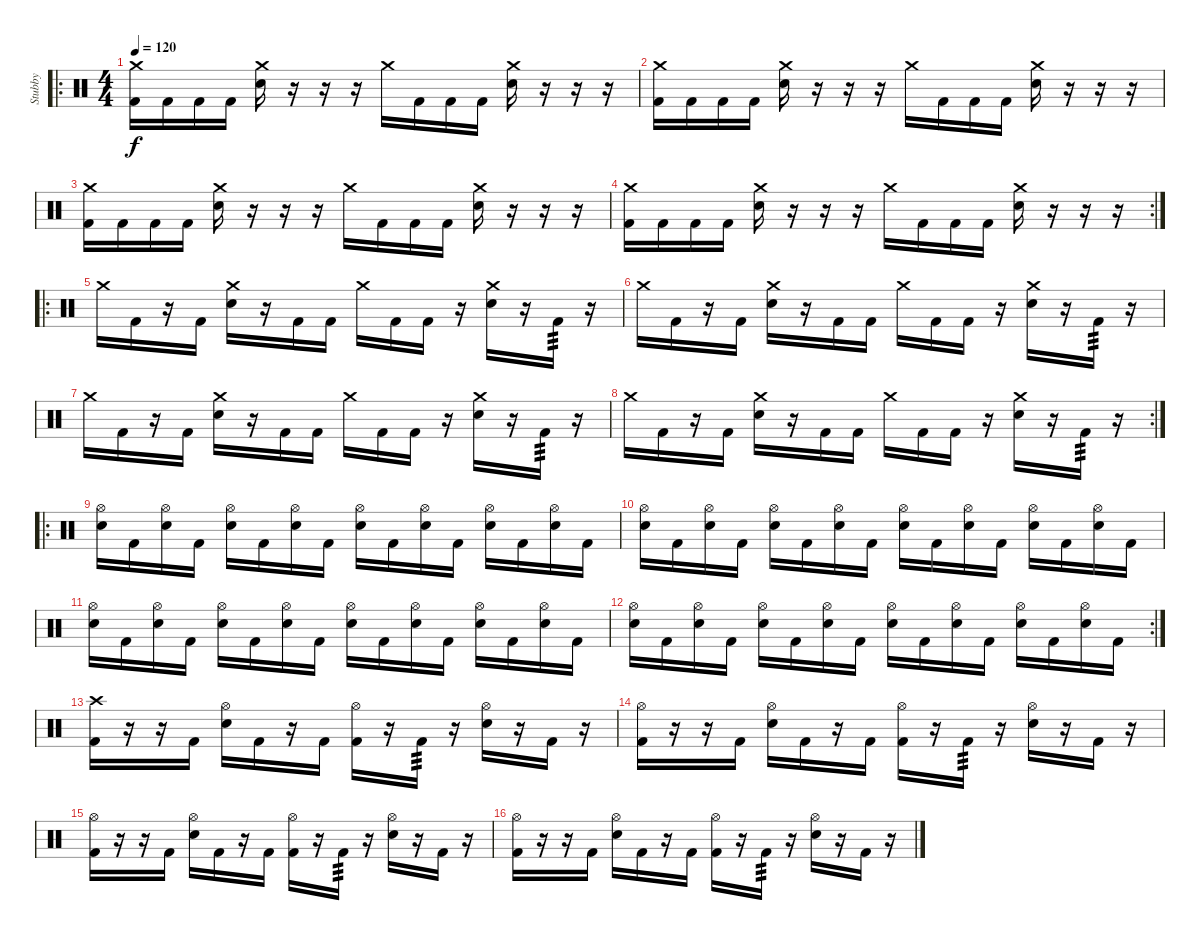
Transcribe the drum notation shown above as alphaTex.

\track ("Stubby" "Stubby") {instrument percussion}
\staff {score}
\articulation defaults
\ro
\ts (4 4)
\tempo 120
\clef neutral
\ks c
("Crash medium (hit)" "Kick (hit) 2").16{dy f} "Kick (hit) 2".16 "Kick (hit) 2".16 "Kick (hit) 2".16 ("Crash medium (hit)" "Electric Snare (hit)").16 r.16 r.16 r.16 "Crash medium (hit)".16 "Kick (hit) 2".16 "Kick (hit) 2".16 "Kick (hit) 2".16 ("Crash medium (hit)" "Electric Snare (hit)").16 r.16 r.16 r.16 |
("Crash medium (hit)" "Kick (hit) 2").16 "Kick (hit) 2".16 "Kick (hit) 2".16 "Kick (hit) 2".16 ("Crash medium (hit)" "Electric Snare (hit)").16 r.16 r.16 r.16 "Crash medium (hit)".16 "Kick (hit) 2".16 "Kick (hit) 2".16 "Kick (hit) 2".16 ("Crash medium (hit)" "Electric Snare (hit)").16 r.16 r.16 r.16 |
("Crash medium (hit)" "Kick (hit) 2").16 "Kick (hit) 2".16 "Kick (hit) 2".16 "Kick (hit) 2".16 ("Crash medium (hit)" "Electric Snare (hit)").16 r.16 r.16 r.16 "Crash medium (hit)".16 "Kick (hit) 2".16 "Kick (hit) 2".16 "Kick (hit) 2".16 ("Crash medium (hit)" "Electric Snare (hit)").16 r.16 r.16 r.16 |
\rc 2
("Crash medium (hit)" "Kick (hit) 2").16 "Kick (hit) 2".16 "Kick (hit) 2".16 "Kick (hit) 2".16 ("Crash medium (hit)" "Electric Snare (hit)").16 r.16 r.16 r.16 "Crash medium (hit)".16 "Kick (hit) 2".16 "Kick (hit) 2".16 "Kick (hit) 2".16 ("Crash medium (hit)" "Electric Snare (hit)").16 r.16 r.16 r.16 |
\ro "Crash medium (hit)".16 "Kick (hit) 2".16
r.16 "Kick (hit) 2".16 ("Crash medium (hit)" "Electric Snare (hit)").16 r.16 "Kick (hit) 2".16 "Kick (hit) 2".16 "Crash medium (hit)".16 "Kick (hit) 2".16 "Kick (hit) 2".16 r.16 ("Crash medium (hit)" "Electric Snare (hit)").16 r.16 "Kick (hit) 2".16{tp 3} r.16 |
"Crash medium (hit)".16 "Kick (hit) 2".16 r.16 "Kick (hit) 2".16 ("Crash medium (hit)" "Electric Snare (hit)").16 r.16 "Kick (hit) 2".16 "Kick (hit) 2".16 "Crash medium (hit)".16 "Kick (hit) 2".16 "Kick (hit) 2".16 r.16 ("Crash medium (hit)" "Electric Snare (hit)").16 r.16 "Kick (hit) 2".16{tp 3} r.16 |
"Crash medium (hit)".16 "Kick (hit) 2".16 r.16 "Kick (hit) 2".16 ("Crash medium (hit)" "Electric Snare (hit)").16 r.16 "Kick (hit) 2".16 "Kick (hit) 2".16 "Crash medium (hit)".16 "Kick (hit) 2".16 "Kick (hit) 2".16 r.16 ("Crash medium (hit)" "Electric Snare (hit)").16 r.16 "Kick (hit) 2".16{tp 3} r.16 |
\rc 2 "Crash medium (hit)".16 "Kick (hit) 2".16
r.16 "Kick (hit) 2".16 ("Crash medium (hit)" "Electric Snare (hit)").16 r.16 "Kick (hit) 2".16 "Kick (hit) 2".16 "Crash medium (hit)".16 "Kick (hit) 2".16 "Kick (hit) 2".16 r.16 ("Crash medium (hit)" "Electric Snare (hit)").16 r.16 "Kick (hit) 2".16{tp 3} r.16 |
\ro
("Hi-Hat (open)" "Electric Snare (hit)").16 "Kick (hit) 2".16 ("Hi-Hat (open)" "Electric Snare (hit)").16 "Kick (hit) 2".16 ("Hi-Hat (open)" "Electric Snare (hit)").16 "Kick (hit) 2".16 ("Hi-Hat (open)" "Electric Snare (hit)").16 "Kick (hit) 2".16 ("Hi-Hat (open)" "Electric Snare (hit)").16 "Kick (hit) 2".16 ("Hi-Hat (open)" "Electric Snare (hit)").16 "Kick (hit) 2".16 ("Hi-Hat (open)" "Electric Snare (hit)").16 "Kick (hit) 2".16 ("Hi-Hat (open)" "Electric Snare (hit)").16 "Kick (hit) 2".16 |
("Hi-Hat (open)" "Electric Snare (hit)").16 "Kick (hit) 2".16 ("Hi-Hat (open)" "Electric Snare (hit)").16 "Kick (hit) 2".16 ("Hi-Hat (open)" "Electric Snare (hit)").16 "Kick (hit) 2".16 ("Hi-Hat (open)" "Electric Snare (hit)").16 "Kick (hit) 2".16 ("Hi-Hat (open)" "Electric Snare (hit)").16 "Kick (hit) 2".16 ("Hi-Hat (open)" "Electric Snare (hit)").16 "Kick (hit) 2".16 ("Hi-Hat (open)" "Electric Snare (hit)").16 "Kick (hit) 2".16 ("Hi-Hat (open)" "Electric Snare (hit)").16 "Kick (hit) 2".16 |
("Hi-Hat (open)" "Electric Snare (hit)").16 "Kick (hit) 2".16 ("Hi-Hat (open)" "Electric Snare (hit)").16 "Kick (hit) 2".16 ("Hi-Hat (open)" "Electric Snare (hit)").16 "Kick (hit) 2".16 ("Hi-Hat (open)" "Electric Snare (hit)").16 "Kick (hit) 2".16 ("Hi-Hat (open)" "Electric Snare (hit)").16 "Kick (hit) 2".16 ("Hi-Hat (open)" "Electric Snare (hit)").16 "Kick (hit) 2".16 ("Hi-Hat (open)" "Electric Snare (hit)").16 "Kick (hit) 2".16 ("Hi-Hat (open)" "Electric Snare (hit)").16 "Kick (hit) 2".16 |
\rc 2
("Hi-Hat (open)" "Electric Snare (hit)").16 "Kick (hit) 2".16 ("Hi-Hat (open)" "Electric Snare (hit)").16 "Kick (hit) 2".16 ("Hi-Hat (open)" "Electric Snare (hit)").16 "Kick (hit) 2".16 ("Hi-Hat (open)" "Electric Snare (hit)").16 "Kick (hit) 2".16 ("Hi-Hat (open)" "Electric Snare (hit)").16 "Kick (hit) 2".16 ("Hi-Hat (open)" "Electric Snare (hit)").16 "Kick (hit) 2".16 ("Hi-Hat (open)" "Electric Snare (hit)").16 "Kick (hit) 2".16 ("Hi-Hat (open)" "Electric Snare (hit)").16 "Kick (hit) 2".16 |
("Crash high (hit)" "Kick (hit) 2").16 r.16 r.16 "Kick (hit) 2".16 ("Hi-Hat (open)" "Electric Snare (hit)").16 "Kick (hit) 2".16 r.16 "Kick (hit) 2".16 ("Hi-Hat (open)" "Kick (hit) 2").16 r.16 "Kick (hit) 2".16{tp 3} r.16 ("Hi-Hat (open)" "Electric Snare (hit)").16 r.16 "Kick (hit) 2".16 r.16 |
("Hi-Hat (open)" "Kick (hit) 2").16 r.16 r.16 "Kick (hit) 2".16 ("Hi-Hat (open)" "Electric Snare (hit)").16 "Kick (hit) 2".16 r.16 "Kick (hit) 2".16 ("Hi-Hat (open)" "Kick (hit) 2").16 r.16 "Kick (hit) 2".16{tp 3} r.16 ("Hi-Hat (open)" "Electric Snare (hit)").16 r.16 "Kick (hit) 2".16 r.16 |
("Hi-Hat (open)" "Kick (hit) 2").16 r.16 r.16 "Kick (hit) 2".16 ("Hi-Hat (open)" "Electric Snare (hit)").16 "Kick (hit) 2".16 r.16 "Kick (hit) 2".16 ("Hi-Hat (open)" "Kick (hit) 2").16 r.16 "Kick (hit) 2".16{tp 3} r.16 ("Hi-Hat (open)" "Electric Snare (hit)").16 r.16 "Kick (hit) 2".16 r.16 |
("Hi-Hat (open)" "Kick (hit) 2").16 r.16 r.16 "Kick (hit) 2".16 ("Hi-Hat (open)" "Electric Snare (hit)").16 "Kick (hit) 2".16 r.16 "Kick (hit) 2".16 ("Hi-Hat (open)" "Kick (hit) 2").16 r.16 "Kick (hit) 2".16{tp 3} r.16 ("Hi-Hat (open)" "Electric Snare (hit)").16 r.16 "Kick (hit) 2".16 r.16
